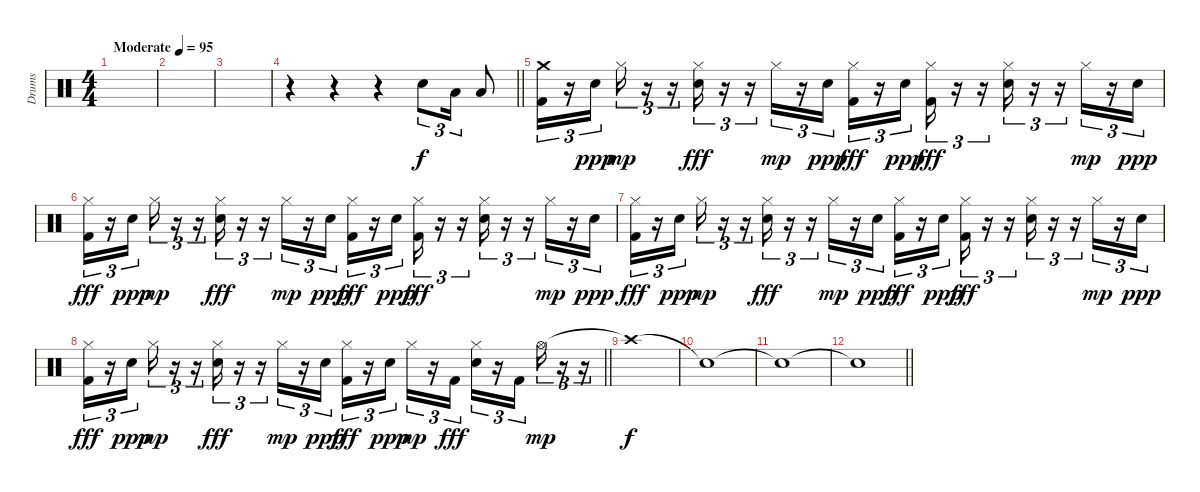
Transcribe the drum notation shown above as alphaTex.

\track ("Drums" "Drums") {instrument percussion}
\staff {score}
\articulation defaults
\ts (4 4)
\tempo (95 "Moderate")
\clef neutral
\ks c
|
|
|
\barLineRight lightlight
r.4 r.4 r.4 "Electric Snare (hit)".8{tu (3 2)} "Low Tom (hit)".16{tu (3 2)} "Low Floor Tom (hit)".8 |
("Crash medium (hit)" "Kick (hit) 2").16{tu (3 2)} r.16{tu (3 2)} "Electric Snare (hit)".16{tu (3 2) dy ppp} "Hi-Hat (closed)".16{tu (3 2) dy mp} r.16{tu (3 2)} r.16{tu (3 2)} ("Hi-Hat (closed)" "Electric Snare (hit)").16{tu (3 2) dy fff} r.16{tu (3 2)} r.16{tu (3 2)} "Hi-Hat (closed)".16{tu (3 2) dy mp} r.16{tu (3 2)} "Electric Snare (hit)".16{tu (3 2) dy ppp} ("Hi-Hat (closed)" "Kick (hit) 2").16{tu (3 2) dy fff} r.16{tu (3 2)} "Electric Snare (hit)".16{tu (3 2) dy ppp} ("Hi-Hat (closed)" "Kick (hit) 2").16{tu (3 2) dy fff} r.16{tu (3 2)} r.16{tu (3 2)} ("Hi-Hat (closed)" "Electric Snare (hit)").16{tu (3 2)} r.16{tu (3 2)} r.16{tu (3 2)} "Hi-Hat (closed)".16{tu (3 2) dy mp} r.16{tu (3 2)} "Electric Snare (hit)".16{tu (3 2) dy ppp} |
("Hi-Hat (closed)" "Kick (hit) 2").16{tu (3 2) dy fff} r.16{tu (3 2)} "Electric Snare (hit)".16{tu (3 2) dy ppp} "Hi-Hat (closed)".16{tu (3 2) dy mp} r.16{tu (3 2)} r.16{tu (3 2)} ("Hi-Hat (closed)" "Electric Snare (hit)").16{tu (3 2) dy fff} r.16{tu (3 2)} r.16{tu (3 2)} "Hi-Hat (closed)".16{tu (3 2) dy mp} r.16{tu (3 2)} "Electric Snare (hit)".16{tu (3 2) dy ppp} ("Hi-Hat (closed)" "Kick (hit) 2").16{tu (3 2) dy fff} r.16{tu (3 2)} "Electric Snare (hit)".16{tu (3 2) dy ppp} ("Hi-Hat (closed)" "Kick (hit) 2").16{tu (3 2) dy fff} r.16{tu (3 2)} r.16{tu (3 2)} ("Hi-Hat (closed)" "Electric Snare (hit)").16{tu (3 2)} r.16{tu (3 2)} r.16{tu (3 2)} "Hi-Hat (closed)".16{tu (3 2) dy mp} r.16{tu (3 2)} "Electric Snare (hit)".16{tu (3 2) dy ppp} |
("Hi-Hat (closed)" "Kick (hit) 2").16{tu (3 2) dy fff} r.16{tu (3 2)} "Electric Snare (hit)".16{tu (3 2) dy ppp} "Hi-Hat (closed)".16{tu (3 2) dy mp} r.16{tu (3 2)} r.16{tu (3 2)} ("Hi-Hat (closed)" "Electric Snare (hit)").16{tu (3 2) dy fff} r.16{tu (3 2)} r.16{tu (3 2)} "Hi-Hat (closed)".16{tu (3 2) dy mp} r.16{tu (3 2)} "Electric Snare (hit)".16{tu (3 2) dy ppp} ("Hi-Hat (closed)" "Kick (hit) 2").16{tu (3 2) dy fff} r.16{tu (3 2)} "Electric Snare (hit)".16{tu (3 2) dy ppp} ("Hi-Hat (closed)" "Kick (hit) 2").16{tu (3 2) dy fff} r.16{tu (3 2)} r.16{tu (3 2)} ("Hi-Hat (closed)" "Electric Snare (hit)").16{tu (3 2)} r.16{tu (3 2)} r.16{tu (3 2)} "Hi-Hat (closed)".16{tu (3 2) dy mp} r.16{tu (3 2)} "Electric Snare (hit)".16{tu (3 2) dy ppp} |
\barLineRight lightlight
("Hi-Hat (closed)" "Kick (hit) 2").16{tu (3 2) dy fff} r.16{tu (3 2)} "Electric Snare (hit)".16{tu (3 2) dy ppp} "Hi-Hat (closed)".16{tu (3 2) dy mp} r.16{tu (3 2)} r.16{tu (3 2)} ("Hi-Hat (closed)" "Electric Snare (hit)").16{tu (3 2) dy fff} r.16{tu (3 2)} r.16{tu (3 2)} "Hi-Hat (closed)".16{tu (3 2) dy mp} r.16{tu (3 2)} "Electric Snare (hit)".16{tu (3 2) dy ppp} ("Hi-Hat (closed)" "Kick (hit) 2").16{tu (3 2) dy fff} r.16{tu (3 2)} "Electric Snare (hit)".16{tu (3 2) dy ppp} "Hi-Hat (closed)".16{tu (3 2) dy mp} r.16{tu (3 2)} "Kick (hit) 2".16{tu (3 2) dy fff} ("Hi-Hat (closed)" "Electric Snare (hit)").16{tu (3 2)} r.16{tu (3 2)} "Kick (hit) 2".16{tu (3 2)} "Hi-Hat (open)".16{tu (3 2) dy mp} r.16{tu (3 2)} r.16{tu (3 2)} |
"Crash high (hit)"{t}.1{dy f} |
"Snare (hit)"{t}.1 |
"Snare (hit)"{t}.1 |
\barLineRight lightlight "Snare (hit)"{t}.1
